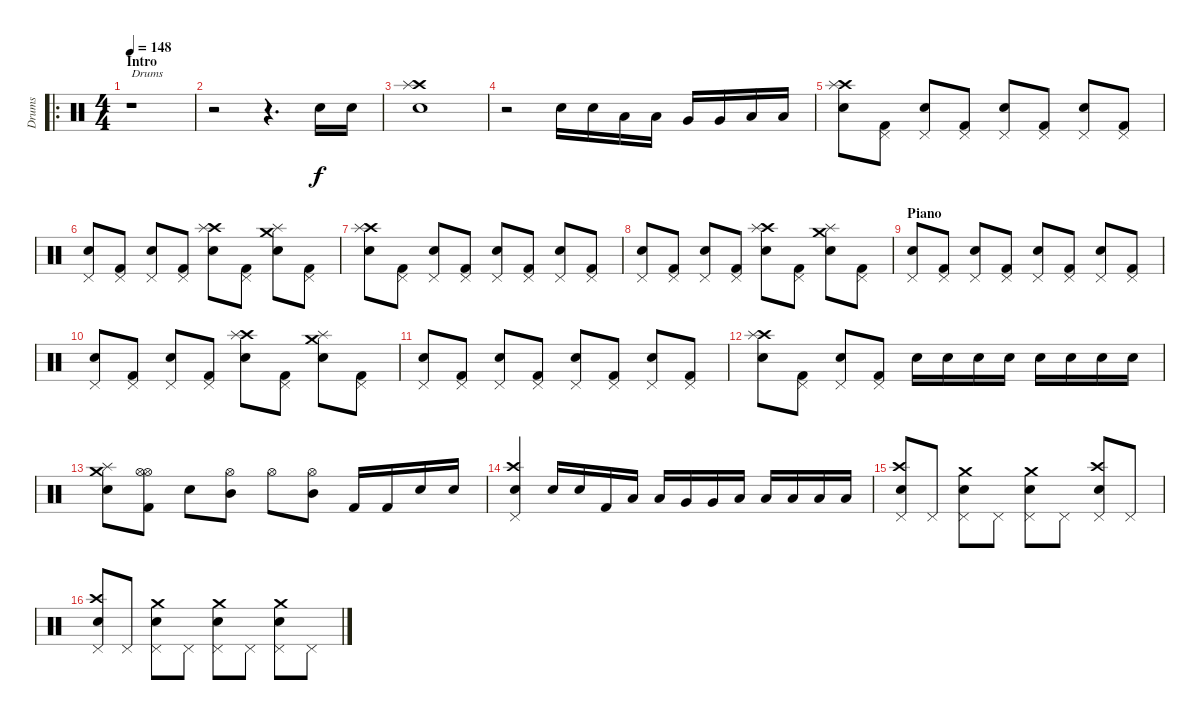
\track ("Drums" "Drums") {instrument percussion}
\staff {score}
\articulation defaults
\ro
\ts (4 4)
\section ("" "Intro")
\tempo 148
\clef neutral
\ks c
r.1{txt "Drums" dy f} |
r.2 r.4{d} "Snare (hit) 2".16 "Snare (hit) 2".16 |
("Crash high (hit)" "Splash (hit)" "Snare (hit) 2").1 |
r.2 "Snare (hit) 2".16 "Snare (hit) 2".16 "Low Floor Tom (hit)".16 "Low Floor Tom (hit)".16 "Very Low Tom (hit)".16 "Very Low Tom (hit)".16 "Low Floor Tom (hit)".16 "Low Floor Tom (hit)".16 |
("Crash high (hit)" "Splash (hit)" "Snare (hit) 2").8 ("Pedal Hi-Hat (hit)" "Kick (hit) 2").8 ("Pedal Hi-Hat (hit)" "Snare (hit) 2").8 ("Pedal Hi-Hat (hit)" "Kick (hit) 2").8 ("Pedal Hi-Hat (hit)" "Snare (hit) 2").8 ("Pedal Hi-Hat (hit)" "Kick (hit) 2").8 ("Pedal Hi-Hat (hit)" "Snare (hit) 2").8 ("Pedal Hi-Hat (hit)" "Kick (hit) 2").8 |
("Pedal Hi-Hat (hit)" "Snare (hit) 2").8 ("Pedal Hi-Hat (hit)" "Kick (hit) 2").8 ("Pedal Hi-Hat (hit)" "Snare (hit) 2").8 ("Pedal Hi-Hat (hit)" "Kick (hit) 2").8 ("Crash high (hit)" "Splash (hit)" "Snare (hit) 2").8 ("Pedal Hi-Hat (hit)" "Kick (hit) 2").8 ("Crash medium (hit)" "Splash (hit)" "Snare (hit) 2").8 ("Pedal Hi-Hat (hit)" "Kick (hit) 2").8 |
("Crash high (hit)" "Splash (hit)" "Snare (hit) 2").8 ("Pedal Hi-Hat (hit)" "Kick (hit) 2").8 ("Pedal Hi-Hat (hit)" "Snare (hit) 2").8 ("Pedal Hi-Hat (hit)" "Kick (hit) 2").8 ("Pedal Hi-Hat (hit)" "Snare (hit) 2").8 ("Pedal Hi-Hat (hit)" "Kick (hit) 2").8 ("Pedal Hi-Hat (hit)" "Snare (hit) 2").8 ("Pedal Hi-Hat (hit)" "Kick (hit) 2").8 |
("Pedal Hi-Hat (hit)" "Snare (hit) 2").8 ("Pedal Hi-Hat (hit)" "Kick (hit) 2").8 ("Pedal Hi-Hat (hit)" "Snare (hit) 2").8 ("Pedal Hi-Hat (hit)" "Kick (hit) 2").8 ("Crash high (hit)" "Splash (hit)" "Snare (hit) 2").8 ("Pedal Hi-Hat (hit)" "Kick (hit) 2").8 ("Crash medium (hit)" "Splash (hit)" "Snare (hit) 2").8 ("Pedal Hi-Hat (hit)" "Kick (hit) 2").8 |
\section ("" "Piano")
("Pedal Hi-Hat (hit)" "Snare (hit) 2").8 ("Pedal Hi-Hat (hit)" "Kick (hit) 2").8 ("Pedal Hi-Hat (hit)" "Snare (hit) 2").8 ("Pedal Hi-Hat (hit)" "Kick (hit) 2").8 ("Pedal Hi-Hat (hit)" "Snare (hit) 2").8 ("Pedal Hi-Hat (hit)" "Kick (hit) 2").8 ("Pedal Hi-Hat (hit)" "Snare (hit) 2").8 ("Pedal Hi-Hat (hit)" "Kick (hit) 2").8 |
("Pedal Hi-Hat (hit)" "Snare (hit) 2").8 ("Pedal Hi-Hat (hit)" "Kick (hit) 2").8 ("Pedal Hi-Hat (hit)" "Snare (hit) 2").8 ("Pedal Hi-Hat (hit)" "Kick (hit) 2").8 ("Crash high (hit)" "Splash (hit)" "Snare (hit) 2").8 ("Pedal Hi-Hat (hit)" "Kick (hit) 2").8 ("Crash medium (hit)" "Splash (hit)" "Snare (hit) 2").8 ("Pedal Hi-Hat (hit)" "Kick (hit) 2").8 |
("Pedal Hi-Hat (hit)" "Snare (hit) 2").8 ("Pedal Hi-Hat (hit)" "Kick (hit) 2").8 ("Pedal Hi-Hat (hit)" "Snare (hit) 2").8 ("Pedal Hi-Hat (hit)" "Kick (hit) 2").8 ("Pedal Hi-Hat (hit)" "Snare (hit) 2").8 ("Pedal Hi-Hat (hit)" "Kick (hit) 2").8 ("Pedal Hi-Hat (hit)" "Snare (hit) 2").8 ("Pedal Hi-Hat (hit)" "Kick (hit) 2").8 |
("Crash high (hit)" "Splash (hit)" "Snare (hit) 2").8 ("Pedal Hi-Hat (hit)" "Kick (hit) 2").8 ("Pedal Hi-Hat (hit)" "Snare (hit) 2").8 ("Pedal Hi-Hat (hit)" "Kick (hit) 2").8 "Snare (hit) 2".16 "Snare (hit) 2".16 "Snare (hit) 2".16 "Snare (hit) 2".16 "Snare (hit) 2".16 "Snare (hit) 2".16 "Snare (hit) 2".16 "Snare (hit) 2".16 |
("Crash medium (hit)" "Splash (hit)" "Snare (hit) 2").8 ("Hi-Hat (open)" "Hi-Hat (open)" "Kick (hit) 2").8 "Snare (hit) 2".8 ("Hi-Hat (open)" "Mid Tom (hit)").8 "Hi-Hat (open)".8 ("Hi-Hat (open)" "Mid Tom (hit)").8 "Kick (hit) 2".16 "Kick (hit) 2".16 "Snare (hit) 2".16 "Snare (hit) 2".16 |
("Crash high (hit)" "Pedal Hi-Hat (hit)" "Snare (hit) 2").4 "Snare (hit) 2".16 "Snare (hit) 2".16 "Kick (hit) 2".16 "Low Floor Tom (hit)".16 "Low Floor Tom (hit)".16 "Very Low Tom (hit)".16 "Very Low Tom (hit)".16 "Low Floor Tom (hit)".16 "Low Floor Tom (hit)".16 "Low Floor Tom (hit)".16 "Low Floor Tom (hit)".16 "Low Floor Tom (hit)".16 |
("Crash high (hit)" "Pedal Hi-Hat (hit)" "Snare (hit) 2").8 "Pedal Hi-Hat (hit)".8 ("Crash medium (hit)" "Pedal Hi-Hat (hit)" "Snare (hit) 2").8 "Pedal Hi-Hat (hit)".8 ("Crash medium (hit)" "Pedal Hi-Hat (hit)" "Snare (hit) 2").8 "Pedal Hi-Hat (hit)".8 ("Crash high (hit)" "Pedal Hi-Hat (hit)" "Snare (hit) 2").8 "Pedal Hi-Hat (hit)".8 |
("Crash high (hit)" "Pedal Hi-Hat (hit)" "Snare (hit) 2").8 "Pedal Hi-Hat (hit)".8 ("Crash medium (hit)" "Pedal Hi-Hat (hit)" "Snare (hit) 2").8 "Pedal Hi-Hat (hit)".8 ("Crash medium (hit)" "Pedal Hi-Hat (hit)" "Snare (hit) 2").8 "Pedal Hi-Hat (hit)".8 ("Crash medium (hit)" "Pedal Hi-Hat (hit)" "Snare (hit) 2").8 "Pedal Hi-Hat (hit)".8
